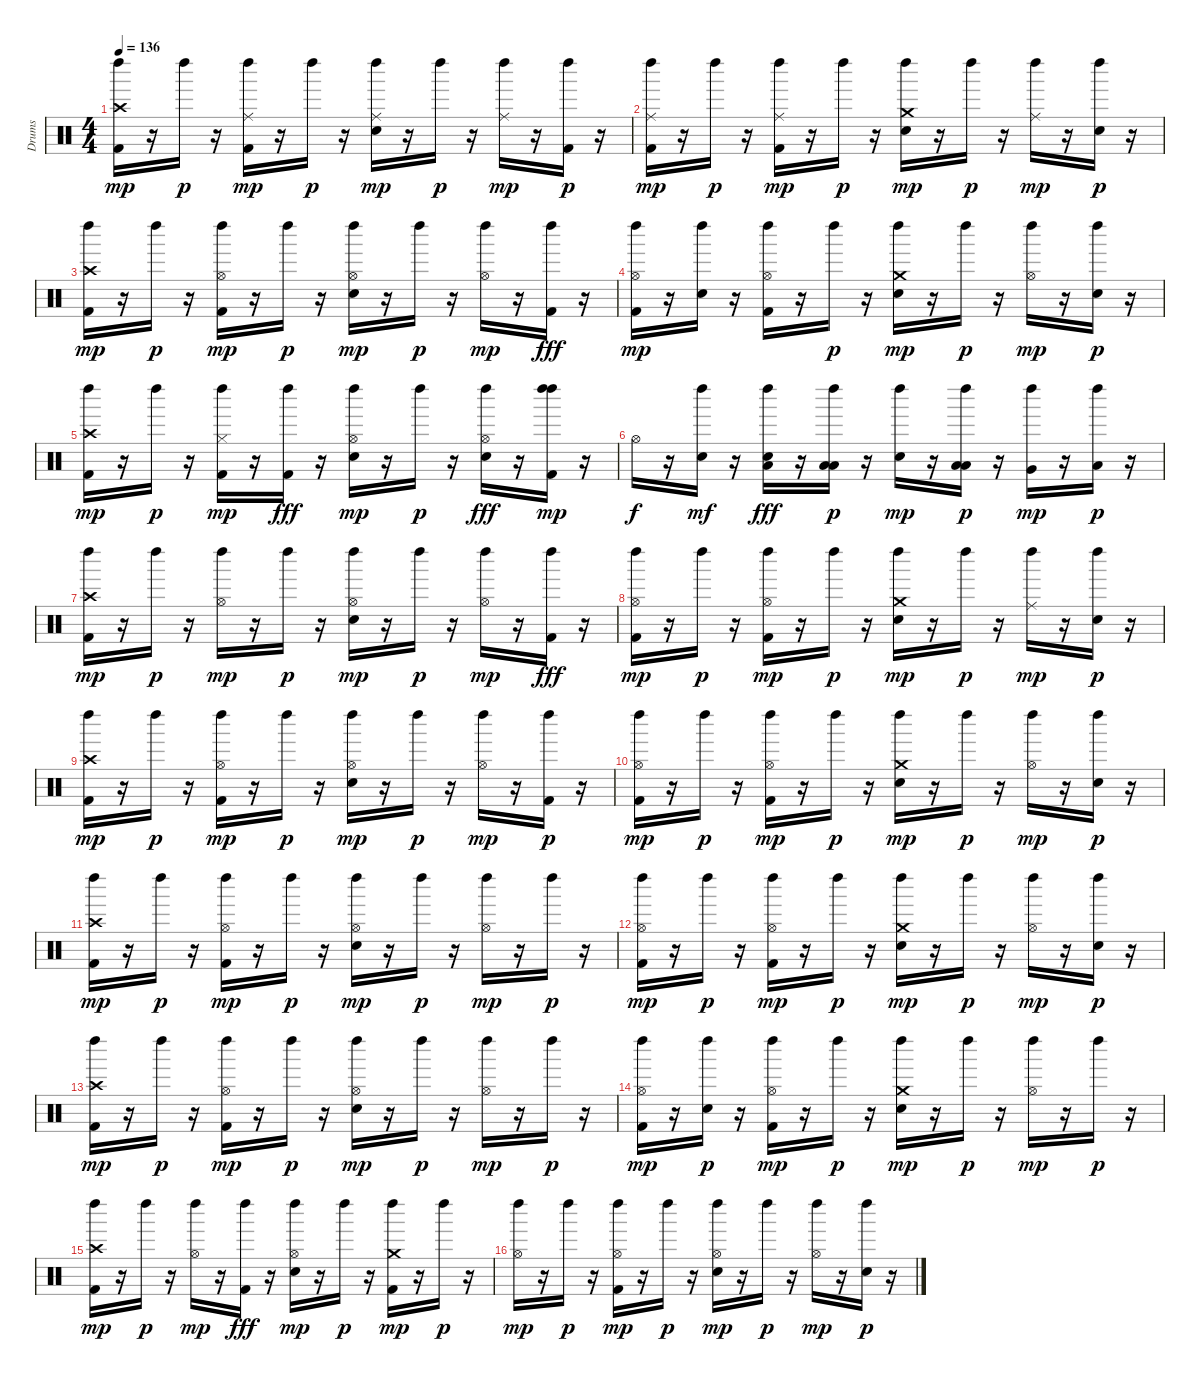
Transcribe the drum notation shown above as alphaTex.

\track ("Drums" "Drums") {instrument percussion}
\staff {score}
\articulation defaults
\ts (4 4)
\tempo 136
\clef neutral
\ks c
("Kick (hit) 2" "Crash high (hit)" "Left Maraca (hit)").16{dy mp} r.16 "Left Maraca (hit)".16{dy p} r.16 ("Ride (middle)" "Kick (hit) 2" "Left Maraca (hit)").16{dy mp} r.16 "Left Maraca (hit)".16{dy p} r.16 ("Electric Snare (hit)" "Ride (middle)" "Left Maraca (hit)").16{dy mp} r.16 "Left Maraca (hit)".16{dy p} r.16 ("Ride (middle)" "Left Maraca (hit)").16{dy mp} r.16 ("Kick (hit) 2" "Left Maraca (hit)").16{dy p} r.16 |
("Kick (hit) 2" "Ride (middle)" "Left Maraca (hit)").16{dy mp} r.16 "Left Maraca (hit)".16{dy p} r.16 ("Kick (hit) 2" "Ride (middle)" "Left Maraca (hit)").16{dy mp} r.16 "Left Maraca (hit)".16{dy p} r.16 ("Electric Snare (hit)" "Crash medium (hit)" "Left Maraca (hit)").16{dy mp} r.16 "Left Maraca (hit)".16{dy p} r.16 ("Ride (middle)" "Left Maraca (hit)").16{dy mp} r.16 ("Electric Snare (hit)" "Left Maraca (hit)").16{dy p} r.16 |
("Kick (hit) 2" "Crash high (hit)" "Left Maraca (hit)").16{dy mp} r.16 "Left Maraca (hit)".16{dy p} r.16 ("Left Maraca (hit)" "Kick (hit) 2" "Hi-Hat (open)").16{dy mp} r.16 "Left Maraca (hit)".16{dy p} r.16 ("Electric Snare (hit)" "Left Maraca (hit)" "Hi-Hat (open)").16{dy mp} r.16 "Left Maraca (hit)".16{dy p} r.16 ("Left Maraca (hit)" "Hi-Hat (open)").16{dy mp} r.16 ("Left Maraca (hit)" "Kick (hit) 2").16{dy fff} r.16 |
("Kick (hit) 2" "Left Maraca (hit)" "Hi-Hat (open)").16{dy mp} r.16 ("Left Maraca (hit)" "Electric Snare (hit)").16 r.16 ("Kick (hit) 2" "Left Maraca (hit)" "Hi-Hat (open)").16 r.16 "Left Maraca (hit)".16{dy p} r.16 ("Electric Snare (hit)" "Crash medium (hit)" "Left Maraca (hit)").16{dy mp} r.16 "Left Maraca (hit)".16{dy p} r.16 ("Left Maraca (hit)" "Hi-Hat (open)").16{dy mp} r.16 ("Electric Snare (hit)" "Left Maraca (hit)").16{dy p} r.16 |
("Kick (hit) 2" "Crash high (hit)" "Left Maraca (hit)").16{dy mp} r.16 "Left Maraca (hit)".16{dy p} r.16 ("Left Maraca (hit)" "Kick (hit) 2" "Hi-Hat (closed)").16{dy mp} r.16 ("Left Maraca (hit)" "Kick (hit) 2").16{dy fff} r.16 ("Electric Snare (hit)" "Left Maraca (hit)" "Hi-Hat (open)").16{dy mp} r.16 "Left Maraca (hit)".16{dy p} r.16 ("Left Maraca (hit)" "Hi-Hat (open)" "Electric Snare (hit)").16{dy fff} r.16 ("Left Maraca (hit)" "Kick (hit) 2" "Left Maraca (hit)").16{dy mp} r.16 |
"Hi-Hat (open)".16{dy f} r.16 ("Left Maraca (hit)" "Electric Snare (hit)").16{dy mf} r.16 ("Left Maraca (hit)" "Low Tom (hit)" "Electric Snare (hit)").16{dy fff} r.16 ("Left Maraca (hit)" "Low Floor Tom (hit)" "Low Tom (hit)").16{dy p} r.16 ("Electric Snare (hit)" "Left Maraca (hit)").16{dy mp} r.16 ("Left Maraca (hit)" "Low Floor Tom (hit)" "Low Tom (hit)").16{dy p} r.16 ("Left Maraca (hit)" "Very Low Tom (hit)").16{dy mp} r.16 ("Left Maraca (hit)" "Low Floor Tom (hit)").16{dy p} r.16 |
("Kick (hit) 2" "Crash high (hit)" "Left Maraca (hit)").16{dy mp} r.16 "Left Maraca (hit)".16{dy p} r.16 ("Left Maraca (hit)" "Hi-Hat (open)").16{dy mp} r.16 "Left Maraca (hit)".16{dy p} r.16 ("Electric Snare (hit)" "Left Maraca (hit)" "Hi-Hat (open)").16{dy mp} r.16 "Left Maraca (hit)".16{dy p} r.16 ("Left Maraca (hit)" "Hi-Hat (open)").16{dy mp} r.16 ("Left Maraca (hit)" "Kick (hit) 2").16{dy fff} r.16 |
("Kick (hit) 2" "Left Maraca (hit)" "Hi-Hat (open)").16{dy mp} r.16 "Left Maraca (hit)".16{dy p} r.16 ("Kick (hit) 2" "Left Maraca (hit)" "Hi-Hat (open)").16{dy mp} r.16 "Left Maraca (hit)".16{dy p} r.16 ("Electric Snare (hit)" "Crash medium (hit)" "Left Maraca (hit)").16{dy mp} r.16 "Left Maraca (hit)".16{dy p} r.16 ("Ride (middle)" "Left Maraca (hit)").16{dy mp} r.16 ("Electric Snare (hit)" "Left Maraca (hit)").16{dy p} r.16 |
("Kick (hit) 2" "Crash high (hit)" "Left Maraca (hit)").16{dy mp} r.16 "Left Maraca (hit)".16{dy p} r.16 ("Kick (hit) 2" "Left Maraca (hit)" "Hi-Hat (open)").16{dy mp} r.16 "Left Maraca (hit)".16{dy p} r.16 ("Electric Snare (hit)" "Left Maraca (hit)" "Hi-Hat (open)").16{dy mp} r.16 "Left Maraca (hit)".16{dy p} r.16 ("Left Maraca (hit)" "Hi-Hat (open)").16{dy mp} r.16 ("Kick (hit) 2" "Left Maraca (hit)").16{dy p} r.16 |
("Kick (hit) 2" "Left Maraca (hit)" "Hi-Hat (open)").16{dy mp} r.16 "Left Maraca (hit)".16{dy p} r.16 ("Kick (hit) 2" "Left Maraca (hit)" "Hi-Hat (open)").16{dy mp} r.16 "Left Maraca (hit)".16{dy p} r.16 ("Electric Snare (hit)" "Crash medium (hit)" "Left Maraca (hit)").16{dy mp} r.16 "Left Maraca (hit)".16{dy p} r.16 ("Left Maraca (hit)" "Hi-Hat (open)").16{dy mp} r.16 ("Electric Snare (hit)" "Left Maraca (hit)").16{dy p} r.16 |
("Kick (hit) 2" "Crash high (hit)" "Left Maraca (hit)").16{dy mp} r.16 "Left Maraca (hit)".16{dy p} r.16 ("Left Maraca (hit)" "Kick (hit) 2" "Hi-Hat (open)").16{dy mp} r.16 "Left Maraca (hit)".16{dy p} r.16 ("Electric Snare (hit)" "Left Maraca (hit)" "Hi-Hat (open)").16{dy mp} r.16 "Left Maraca (hit)".16{dy p} r.16 ("Left Maraca (hit)" "Hi-Hat (open)").16{dy mp} r.16 "Left Maraca (hit)".16{dy p} r.16 |
("Kick (hit) 2" "Left Maraca (hit)" "Hi-Hat (open)").16{dy mp} r.16 "Left Maraca (hit)".16{dy p} r.16 ("Kick (hit) 2" "Left Maraca (hit)" "Hi-Hat (open)").16{dy mp} r.16 "Left Maraca (hit)".16{dy p} r.16 ("Electric Snare (hit)" "Crash medium (hit)" "Left Maraca (hit)").16{dy mp} r.16 "Left Maraca (hit)".16{dy p} r.16 ("Left Maraca (hit)" "Hi-Hat (open)").16{dy mp} r.16 ("Electric Snare (hit)" "Left Maraca (hit)").16{dy p} r.16 |
("Kick (hit) 2" "Crash high (hit)" "Left Maraca (hit)").16{dy mp} r.16 "Left Maraca (hit)".16{dy p} r.16 ("Kick (hit) 2" "Hi-Hat (open)" "Left Maraca (hit)").16{dy mp} r.16 "Left Maraca (hit)".16{dy p} r.16 ("Electric Snare (hit)" "Hi-Hat (open)" "Left Maraca (hit)").16{dy mp} r.16 "Left Maraca (hit)".16{dy p} r.16 ("Hi-Hat (open)" "Left Maraca (hit)").16{dy mp} r.16 "Left Maraca (hit)".16{dy p} r.16 |
("Kick (hit) 2" "Hi-Hat (open)" "Left Maraca (hit)").16{dy mp} r.16 ("Electric Snare (hit)" "Left Maraca (hit)").16{dy p} r.16 ("Kick (hit) 2" "Hi-Hat (open)" "Left Maraca (hit)").16{dy mp} r.16 "Left Maraca (hit)".16{dy p} r.16 ("Electric Snare (hit)" "Crash medium (hit)" "Left Maraca (hit)").16{dy mp} r.16 "Left Maraca (hit)".16{dy p} r.16 ("Hi-Hat (open)" "Left Maraca (hit)").16{dy mp} r.16 "Left Maraca (hit)".16{dy p} r.16 |
("Kick (hit) 2" "Crash high (hit)" "Left Maraca (hit)").16{dy mp} r.16 "Left Maraca (hit)".16{dy p} r.16 ("Left Maraca (hit)" "Hi-Hat (open)").16{dy mp} r.16 ("Left Maraca (hit)" "Kick (hit) 2").16{dy fff} r.16 ("Electric Snare (hit)" "Left Maraca (hit)" "Hi-Hat (open)").16{dy mp} r.16 "Left Maraca (hit)".16{dy p} r.16 ("Left Maraca (hit)" "Kick (hit) 2" "Crash medium (hit)").16{dy mp} r.16 "Left Maraca (hit)".16{dy p} r.16 |
("Left Maraca (hit)" "Hi-Hat (open)").16{dy mp} r.16 "Left Maraca (hit)".16{dy p} r.16 ("Kick (hit) 2" "Left Maraca (hit)" "Hi-Hat (open)").16{dy mp} r.16 "Left Maraca (hit)".16{dy p} r.16 ("Electric Snare (hit)" "Left Maraca (hit)" "Hi-Hat (open)").16{dy mp} r.16 "Left Maraca (hit)".16{dy p} r.16 ("Left Maraca (hit)" "Hi-Hat (open)").16{dy mp} r.16 ("Electric Snare (hit)" "Left Maraca (hit)").16{dy p} r.16
